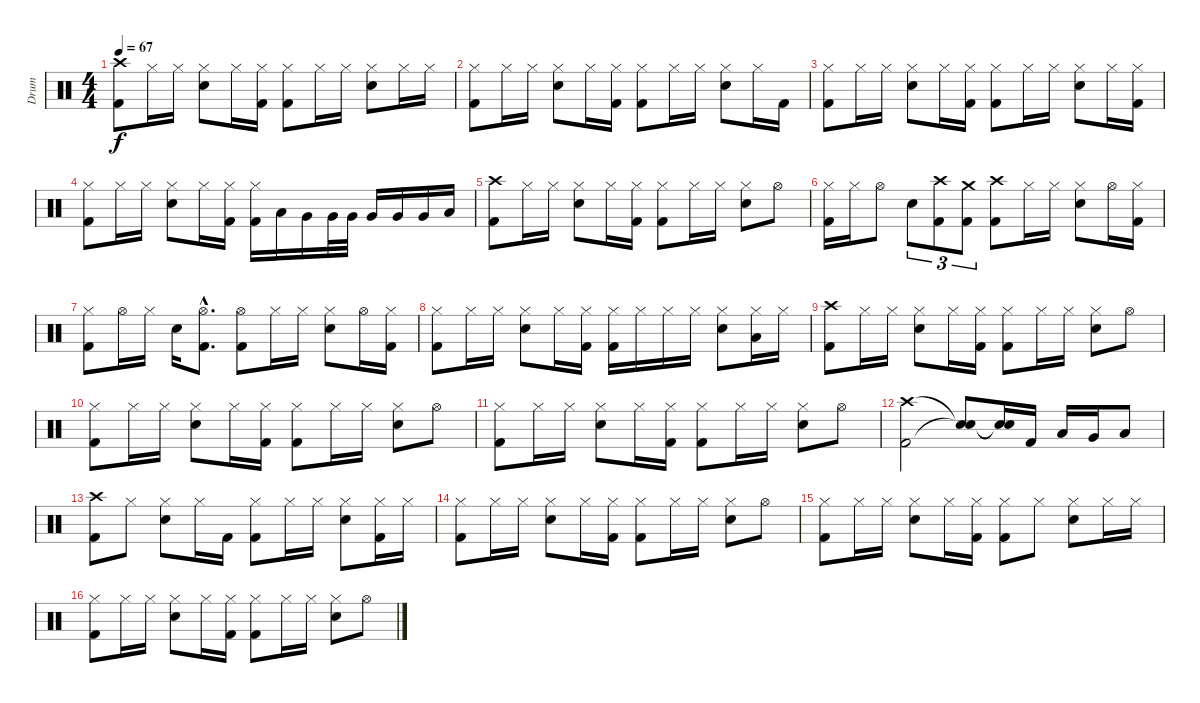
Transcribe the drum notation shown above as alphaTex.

\track ("Drum" "Drum") {instrument percussion}
\staff {score}
\articulation defaults
\ts (4 4)
\tempo 67
\clef neutral
\ks c
("Crash high (hit)" "Kick (hit) 2").8{dy f} "Hi-Hat (closed)".16 "Hi-Hat (closed)".16 ("Hi-Hat (closed)" "Electric Snare (hit)").8 "Hi-Hat (closed)".16 ("Hi-Hat (closed)" "Kick (hit) 2").16 ("Hi-Hat (closed)" "Kick (hit) 2").8 "Hi-Hat (closed)".16 "Hi-Hat (closed)".16 ("Hi-Hat (closed)" "Electric Snare (hit)").8 "Hi-Hat (closed)".16 "Hi-Hat (closed)".16 |
("Hi-Hat (closed)" "Kick (hit) 2").8 "Hi-Hat (closed)".16 "Hi-Hat (closed)".16 ("Hi-Hat (closed)" "Electric Snare (hit)").8 "Hi-Hat (closed)".16 ("Hi-Hat (closed)" "Kick (hit) 2").16 ("Hi-Hat (closed)" "Kick (hit) 2").8 "Hi-Hat (closed)".16 "Hi-Hat (closed)".16 ("Hi-Hat (closed)" "Electric Snare (hit)").8 "Hi-Hat (closed)".16 "Kick (hit) 2".16 |
("Hi-Hat (closed)" "Kick (hit) 2").8 "Hi-Hat (closed)".16 "Hi-Hat (closed)".16 ("Hi-Hat (closed)" "Electric Snare (hit)").8 "Hi-Hat (closed)".16 ("Hi-Hat (closed)" "Kick (hit) 2").16 ("Hi-Hat (closed)" "Kick (hit) 2").8 "Hi-Hat (closed)".16 "Hi-Hat (closed)".16 ("Hi-Hat (closed)" "Electric Snare (hit)").8 "Hi-Hat (closed)".16 ("Hi-Hat (closed)" "Kick (hit) 2").16 |
("Hi-Hat (closed)" "Kick (hit) 2").8 "Hi-Hat (closed)".16 "Hi-Hat (closed)".16 ("Hi-Hat (closed)" "Electric Snare (hit)").8 "Hi-Hat (closed)".16 ("Hi-Hat (closed)" "Kick (hit) 2").16 ("Hi-Hat (closed)" "Kick (hit) 2").16 "Low Tom (hit)".16 "Very Low Tom (hit)".16 "Very Low Tom (hit)".32 "Very Low Tom (hit)".32 "Very Low Tom (hit)".16 "Very Low Tom (hit)".16 "Very Low Tom (hit)".16 "Low Floor Tom (hit)".16 |
("Crash high (hit)" "Kick (hit) 2").8 "Hi-Hat (closed)".16 "Hi-Hat (closed)".16 ("Hi-Hat (closed)" "Electric Snare (hit)").8 "Hi-Hat (closed)".16 ("Hi-Hat (closed)" "Kick (hit) 2").16 ("Hi-Hat (closed)" "Kick (hit) 2").8 "Hi-Hat (closed)".16 "Hi-Hat (closed)".16 ("Hi-Hat (closed)" "Electric Snare (hit)").8 "Hi-Hat (open)".8 |
("Hi-Hat (closed)" "Kick (hit) 2").16 "Hi-Hat (closed)".16 "Hi-Hat (open)".8 "Electric Snare (hit)".8{tu (3 2)} ("Crash high (hit)" "Kick (hit) 2").8{tu (3 2)} ("Crash medium (hit)" "Kick (hit) 2").8{tu (3 2)} ("Crash high (hit)" "Kick (hit) 2").8 "Hi-Hat (closed)".16 "Hi-Hat (closed)".16 ("Hi-Hat (closed)" "Electric Snare (hit)").8 "Hi-Hat (open)".16 ("Hi-Hat (closed)" "Kick (hit) 2").16 |
("Hi-Hat (closed)" "Kick (hit) 2").8 "Hi-Hat (open)".16 "Hi-Hat (closed)".16 "Electric Snare (hit)".16 ("Hi-Hat (open)"{hac} "Kick (hit) 2"{hac}).8{d} ("Hi-Hat (open)" "Kick (hit) 2").8 "Hi-Hat (closed)".16 "Hi-Hat (closed)".16 ("Hi-Hat (closed)" "Electric Snare (hit)").8 "Hi-Hat (open)".16 ("Hi-Hat (closed)" "Kick (hit) 2").16 |
("Hi-Hat (closed)" "Kick (hit) 2").8 "Hi-Hat (closed)".16 "Hi-Hat (closed)".16 ("Hi-Hat (closed)" "Electric Snare (hit)").8 "Hi-Hat (closed)".16 ("Hi-Hat (closed)" "Kick (hit) 2").16 ("Hi-Hat (closed)" "Kick (hit) 2").16 "Hi-Hat (closed)".16 "Hi-Hat (closed)".16 "Hi-Hat (closed)".16 ("Hi-Hat (closed)" "Electric Snare (hit)").8 ("Hi-Hat (closed)" "Low Floor Tom (hit)").16 "Hi-Hat (closed)".16 |
("Crash high (hit)" "Kick (hit) 2").8 "Hi-Hat (closed)".16 "Hi-Hat (closed)".16 ("Hi-Hat (closed)" "Electric Snare (hit)").8 "Hi-Hat (closed)".16 ("Hi-Hat (closed)" "Kick (hit) 2").16 ("Hi-Hat (closed)" "Kick (hit) 2").8 "Hi-Hat (closed)".16 "Hi-Hat (closed)".16 ("Hi-Hat (closed)" "Electric Snare (hit)").8 "Hi-Hat (open)".8 |
("Hi-Hat (closed)" "Kick (hit) 2").8 "Hi-Hat (closed)".16 "Hi-Hat (closed)".16 ("Hi-Hat (closed)" "Electric Snare (hit)").8 "Hi-Hat (closed)".16 ("Hi-Hat (closed)" "Kick (hit) 2").16 ("Hi-Hat (closed)" "Kick (hit) 2").8 "Hi-Hat (closed)".16 "Hi-Hat (closed)".16 ("Hi-Hat (closed)" "Electric Snare (hit)").8 "Hi-Hat (open)".8 |
("Hi-Hat (closed)" "Kick (hit) 2").8 "Hi-Hat (closed)".16 "Hi-Hat (closed)".16 ("Hi-Hat (closed)" "Electric Snare (hit)").8 "Hi-Hat (closed)".16 ("Hi-Hat (closed)" "Kick (hit) 2").16 ("Hi-Hat (closed)" "Kick (hit) 2").8 "Hi-Hat (closed)".16 "Hi-Hat (closed)".16 ("Hi-Hat (closed)" "Electric Snare (hit)").8 "Hi-Hat (open)".8 |
("Crash high (hit)" "Kick (hit) 2").2 ("Snare (hit)"{t} "Snare (hit)"{t}).8 ("Snare (hit)"{t} "Snare (hit)"{t}).16 "Kick (hit) 2".16 "Low Tom (hit)".16 "Very Low Tom (hit)".16 "Low Floor Tom (hit)".8 |
("Crash high (hit)" "Kick (hit) 2").8 "Hi-Hat (closed)".8 ("Hi-Hat (closed)" "Electric Snare (hit)").8 "Hi-Hat (closed)".16 "Kick (hit) 2".16 ("Hi-Hat (closed)" "Kick (hit) 2").8 "Hi-Hat (closed)".16 "Hi-Hat (closed)".16 ("Hi-Hat (closed)" "Electric Snare (hit)").8 ("Hi-Hat (closed)" "Kick (hit) 2").16 "Hi-Hat (closed)".16 |
("Hi-Hat (closed)" "Kick (hit) 2").8 "Hi-Hat (closed)".16 "Hi-Hat (closed)".16 ("Hi-Hat (closed)" "Electric Snare (hit)").8 "Hi-Hat (closed)".16 ("Hi-Hat (closed)" "Kick (hit) 2").16 ("Hi-Hat (closed)" "Kick (hit) 2").8 "Hi-Hat (closed)".16 "Hi-Hat (closed)".16 ("Hi-Hat (closed)" "Electric Snare (hit)").8 "Hi-Hat (open)".8 |
("Hi-Hat (closed)" "Kick (hit) 2").8 "Hi-Hat (closed)".16 "Hi-Hat (closed)".16 ("Hi-Hat (closed)" "Electric Snare (hit)").8 "Hi-Hat (closed)".16 ("Hi-Hat (closed)" "Kick (hit) 2").16 ("Hi-Hat (closed)" "Kick (hit) 2").8 "Hi-Hat (closed)".8 ("Hi-Hat (closed)" "Electric Snare (hit)").8 "Hi-Hat (closed)".16 "Hi-Hat (closed)".16 |
("Hi-Hat (closed)" "Kick (hit) 2").8 "Hi-Hat (closed)".16 "Hi-Hat (closed)".16 ("Hi-Hat (closed)" "Electric Snare (hit)").8 "Hi-Hat (closed)".16 ("Hi-Hat (closed)" "Kick (hit) 2").16 ("Hi-Hat (closed)" "Kick (hit) 2").8 "Hi-Hat (closed)".16 "Hi-Hat (closed)".16 ("Hi-Hat (closed)" "Electric Snare (hit)").8 "Hi-Hat (open)".8
